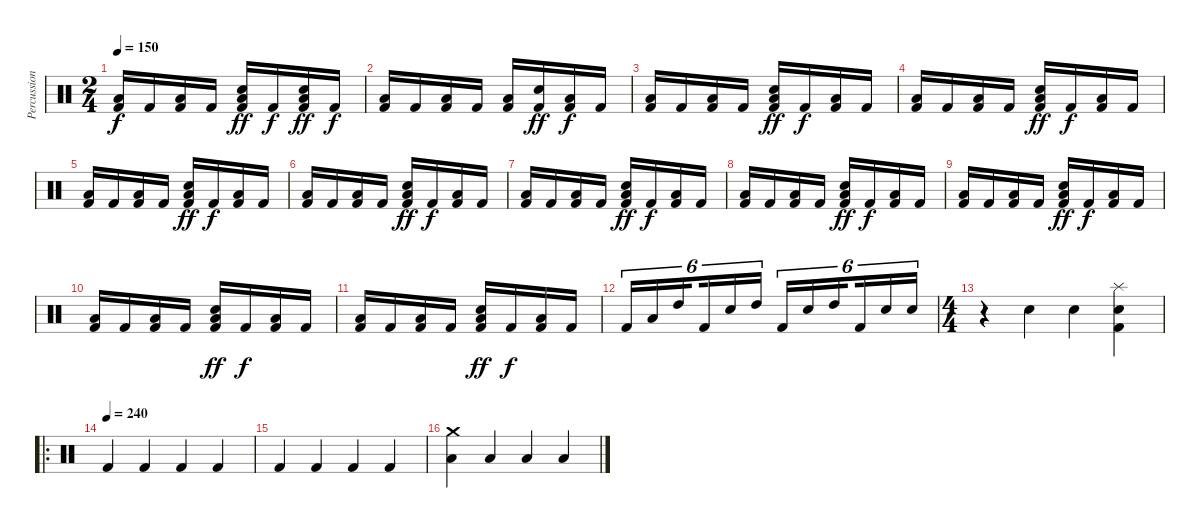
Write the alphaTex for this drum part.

\track ("Percussion" "Percussion") {instrument percussion}
\staff {score}
\articulation defaults
\ts (2 4)
\tempo 150
\clef neutral
\ks c
("Kick (hit) 2" "Low Tom (hit)").16{dy f} "Kick (hit) 2".16 ("Kick (hit) 2" "Low Tom (hit)").16 "Kick (hit) 2".16 ("Kick (hit) 2" "Snare (hit) 2" "Low Tom (hit)").16{dy ff} "Kick (hit) 2".16{dy f} ("Kick (hit) 2" "Snare (hit) 2" "Low Tom (hit)").16{dy ff} "Kick (hit) 2".16{dy f} |
("Kick (hit) 2" "Low Tom (hit)").16 "Kick (hit) 2".16 ("Kick (hit) 2" "Low Tom (hit)").16 "Kick (hit) 2".16 ("Kick (hit) 2" "Low Tom (hit)").16 ("Kick (hit) 2" "Snare (hit) 2").16{dy ff} ("Kick (hit) 2" "Low Tom (hit)").16{dy f} "Kick (hit) 2".16 |
("Kick (hit) 2" "Low Tom (hit)").16 "Kick (hit) 2".16 ("Kick (hit) 2" "Low Tom (hit)").16 "Kick (hit) 2".16 ("Kick (hit) 2" "Snare (hit) 2" "Low Tom (hit)").16{dy ff} "Kick (hit) 2".16{dy f} ("Kick (hit) 2" "Low Tom (hit)").16 "Kick (hit) 2".16 |
("Kick (hit) 2" "Low Tom (hit)").16 "Kick (hit) 2".16 ("Kick (hit) 2" "Low Tom (hit)").16 "Kick (hit) 2".16 ("Kick (hit) 2" "Snare (hit) 2" "Low Tom (hit)").16{dy ff} "Kick (hit) 2".16{dy f} ("Kick (hit) 2" "Low Tom (hit)").16 "Kick (hit) 2".16 |
("Kick (hit) 2" "Low Tom (hit)").16 "Kick (hit) 2".16 ("Kick (hit) 2" "Low Tom (hit)").16 "Kick (hit) 2".16 ("Kick (hit) 2" "Snare (hit) 2" "Low Tom (hit)").16{dy ff} "Kick (hit) 2".16{dy f} ("Kick (hit) 2" "Low Tom (hit)").16 "Kick (hit) 2".16 |
("Kick (hit) 2" "Low Tom (hit)").16 "Kick (hit) 2".16 ("Kick (hit) 2" "Low Tom (hit)").16 "Kick (hit) 2".16 ("Kick (hit) 2" "Snare (hit) 2" "Low Tom (hit)").16{dy ff} "Kick (hit) 2".16{dy f} ("Kick (hit) 2" "Low Tom (hit)").16 "Kick (hit) 2".16 |
("Kick (hit) 2" "Low Tom (hit)").16 "Kick (hit) 2".16 ("Kick (hit) 2" "Low Tom (hit)").16 "Kick (hit) 2".16 ("Kick (hit) 2" "Snare (hit) 2" "Low Tom (hit)").16{dy ff} "Kick (hit) 2".16{dy f} ("Kick (hit) 2" "Low Tom (hit)").16 "Kick (hit) 2".16 |
("Kick (hit) 2" "Low Tom (hit)").16 "Kick (hit) 2".16 ("Kick (hit) 2" "Low Tom (hit)").16 "Kick (hit) 2".16 ("Kick (hit) 2" "Snare (hit) 2" "Low Tom (hit)").16{dy ff} "Kick (hit) 2".16{dy f} ("Kick (hit) 2" "Low Tom (hit)").16 "Kick (hit) 2".16 |
("Kick (hit) 2" "Low Tom (hit)").16 "Kick (hit) 2".16 ("Kick (hit) 2" "Low Tom (hit)").16 "Kick (hit) 2".16 ("Kick (hit) 2" "Snare (hit) 2" "Low Tom (hit)").16{dy ff} "Kick (hit) 2".16{dy f} ("Kick (hit) 2" "Low Tom (hit)").16 "Kick (hit) 2".16 |
("Kick (hit) 2" "Low Tom (hit)").16 "Kick (hit) 2".16 ("Kick (hit) 2" "Low Tom (hit)").16 "Kick (hit) 2".16 ("Kick (hit) 2" "Snare (hit) 2" "Low Tom (hit)").16{dy ff} "Kick (hit) 2".16{dy f} ("Kick (hit) 2" "Low Tom (hit)").16 "Kick (hit) 2".16 |
("Kick (hit) 2" "Low Tom (hit)").16 "Kick (hit) 2".16 ("Kick (hit) 2" "Low Tom (hit)").16 "Kick (hit) 2".16 ("Kick (hit) 2" "Snare (hit) 2" "Low Tom (hit)").16{dy ff} "Kick (hit) 2".16{dy f} ("Kick (hit) 2" "Low Tom (hit)").16 "Kick (hit) 2".16 |
"Kick (hit) 2".16{tu (6 4)} "Low Tom (hit)".16{tu (6 4)} "High Tom (hit)".16{tu (6 4) beam splitsecondary} "Kick (hit) 2".16{tu (6 4)} "Snare (hit) 2".16{tu (6 4)} "High Tom (hit)".16{tu (6 4)} "Kick (hit) 2".16{tu (6 4)} "Metronome (bell)".16{tu (6 4)} "High Tom (hit)".16{tu (6 4) beam splitsecondary} "Kick (hit) 2".16{tu (6 4)} "Snare (hit) 2".16{tu (6 4)} "Snare (hit) 2".16{tu (6 4)} |
\ts (4 4)
r.4 "Snare (hit) 2".4 "Snare (hit) 2".4 ("Snare (hit) 2" "Kick (hit) 2" "Splash (hit)").4 |
\ro
\tempo (240)
"Kick (hit) 2".4 "Kick (hit) 2".4 "Kick (hit) 2".4 "Kick (hit) 2".4 |
"Kick (hit) 2".4 "Kick (hit) 2".4 "Kick (hit) 2".4 "Kick (hit) 2".4 |
("Crash medium (hit)" "Low Tom (hit)").4 "Low Tom (hit)".4 "Low Tom (hit)".4 "Low Tom (hit)".4
